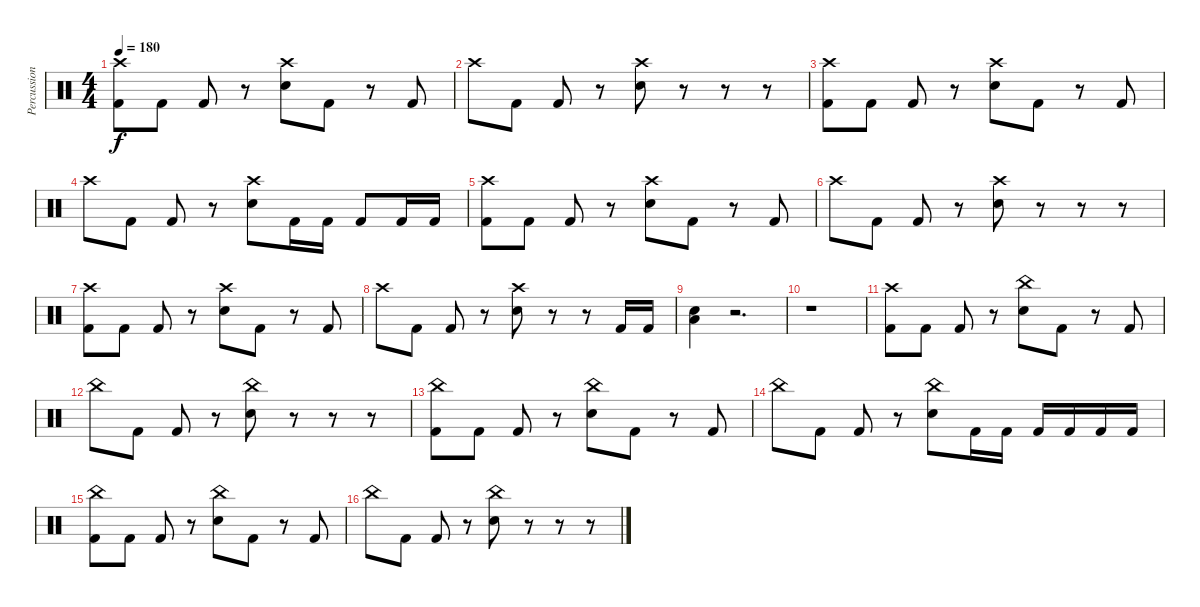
\track ("Percussion" "Percussion") {instrument percussion}
\staff {score}
\articulation defaults
\ts (4 4)
\tempo 180
\clef neutral
\ks c
("Crash high (hit)" "Kick (hit) 2").8{dy f} "Kick (hit) 2".8 "Kick (hit) 2".8 r.8 ("Crash high (hit)" "Snare (hit) 2").8 "Kick (hit) 2".8 r.8 "Kick (hit) 2".8 |
"Crash high (hit)".8 "Kick (hit) 2".8 "Kick (hit) 2".8 r.8 ("Crash high (hit)" "Snare (hit) 2").8 r.8 r.8 r.8 |
("Crash high (hit)" "Kick (hit) 2").8 "Kick (hit) 2".8 "Kick (hit) 2".8 r.8 ("Crash high (hit)" "Snare (hit) 2").8 "Kick (hit) 2".8 r.8 "Kick (hit) 2".8 |
"Crash high (hit)".8 "Kick (hit) 2".8 "Kick (hit) 2".8 r.8 ("Crash high (hit)" "Snare (hit) 2").8 "Kick (hit) 2".16 "Kick (hit) 2".16 "Kick (hit) 2".8 "Kick (hit) 2".16 "Kick (hit) 2".16 |
("Crash high (hit)" "Kick (hit) 2").8 "Kick (hit) 2".8 "Kick (hit) 2".8 r.8 ("Crash high (hit)" "Snare (hit) 2").8 "Kick (hit) 2".8 r.8 "Kick (hit) 2".8 |
"Crash high (hit)".8 "Kick (hit) 2".8 "Kick (hit) 2".8 r.8 ("Crash high (hit)" "Snare (hit) 2").8 r.8 r.8 r.8 |
("Crash high (hit)" "Kick (hit) 2").8 "Kick (hit) 2".8 "Kick (hit) 2".8 r.8 ("Crash high (hit)" "Snare (hit) 2").8 "Kick (hit) 2".8 r.8 "Kick (hit) 2".8 |
"Crash high (hit)".8 "Kick (hit) 2".8 "Kick (hit) 2".8 r.8 ("Crash high (hit)" "Snare (hit) 2").8 r.8 r.8 "Kick (hit) 2".16 "Kick (hit) 2".16 |
("Low Floor Tom (hit)" "Snare (hit) 2").4 r.2{d} |
r.1 |
("Crash high (hit)" "Kick (hit) 2").8 "Kick (hit) 2".8 "Kick (hit) 2".8 r.8 ("China (hit)" "Snare (hit) 2").8 "Kick (hit) 2".8 r.8 "Kick (hit) 2".8 |
"China (hit)".8 "Kick (hit) 2".8 "Kick (hit) 2".8 r.8 ("China (hit)" "Snare (hit) 2").8 r.8 r.8 r.8 |
("China (hit)" "Kick (hit) 2").8 "Kick (hit) 2".8 "Kick (hit) 2".8 r.8 ("China (hit)" "Snare (hit) 2").8 "Kick (hit) 2".8 r.8 "Kick (hit) 2".8 |
"China (hit)".8 "Kick (hit) 2".8 "Kick (hit) 2".8 r.8 ("China (hit)" "Snare (hit) 2").8 "Kick (hit) 2".16 "Kick (hit) 2".16 "Kick (hit) 2".16 "Kick (hit) 2".16 "Kick (hit) 2".16 "Kick (hit) 2".16 |
("China (hit)" "Kick (hit) 2").8 "Kick (hit) 2".8 "Kick (hit) 2".8 r.8 ("China (hit)" "Snare (hit) 2").8 "Kick (hit) 2".8 r.8 "Kick (hit) 2".8 |
"China (hit)".8 "Kick (hit) 2".8 "Kick (hit) 2".8 r.8 ("China (hit)" "Snare (hit) 2").8 r.8 r.8 r.8
